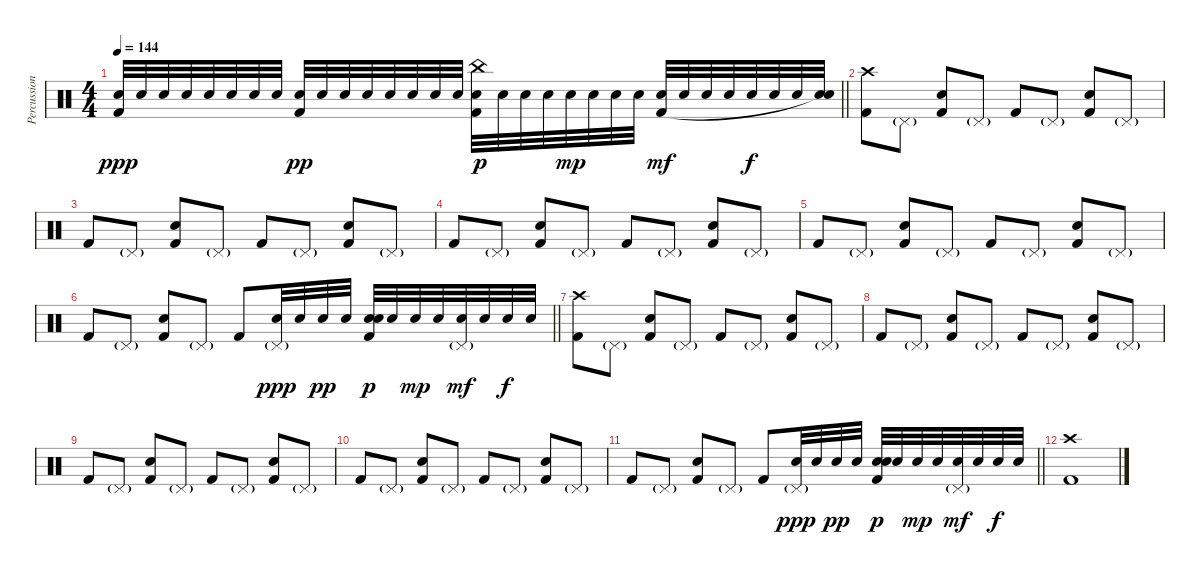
\track ("Percussion" "Percussion") {instrument percussion}
\staff {score}
\articulation defaults
\ts (4 4)
\tempo 144
\clef neutral
\barLineRight lightlight
\ks c
("Snare (hit) 2" "Kick (hit) 2").32{dy ppp} "Snare (hit) 2".32 "Snare (hit) 2".32 "Snare (hit) 2".32 "Snare (hit) 2".32 "Snare (hit) 2".32 "Snare (hit) 2".32 "Snare (hit) 2".32 ("Snare (hit) 2" "Kick (hit) 2").32{dy pp} "Snare (hit) 2".32 "Snare (hit) 2".32 "Snare (hit) 2".32 "Snare (hit) 2".32 "Snare (hit) 2".32 "Snare (hit) 2".32 "Snare (hit) 2".32 ("Snare (hit) 2" "China (hit)" "Kick (hit) 2").32{dy p} "Snare (hit) 2".32 "Snare (hit) 2".32 "Snare (hit) 2".32 "Snare (hit) 2".32{dy mp} "Snare (hit) 2".32 "Snare (hit) 2".32 "Snare (hit) 2".32 ("Snare (hit) 2" "Kick (hit) 2").32{dy mf} "Snare (hit) 2".32 "Snare (hit) 2".32 "Snare (hit) 2".32 "Snare (hit) 2".32{dy f} "Snare (hit) 2".32 "Snare (hit) 2".32 ("Snare (hit) 2" "Snare (hit)"{t}).32 |
("Crash high (hit)" "Kick (hit) 2").8 "Pedal Hi-Hat (hit)"{g}.8 ("Electric Snare (hit)" "Kick (hit) 2").8 "Pedal Hi-Hat (hit)"{g}.8 "Kick (hit) 2".8 "Pedal Hi-Hat (hit)"{g}.8 ("Electric Snare (hit)" "Kick (hit) 2").8 "Pedal Hi-Hat (hit)"{g}.8 |
"Kick (hit) 2".8 "Pedal Hi-Hat (hit)"{g}.8 ("Electric Snare (hit)" "Kick (hit) 2").8 "Pedal Hi-Hat (hit)"{g}.8 "Kick (hit) 2".8 "Pedal Hi-Hat (hit)"{g}.8 ("Electric Snare (hit)" "Kick (hit) 2").8 "Pedal Hi-Hat (hit)"{g}.8 |
"Kick (hit) 2".8 "Pedal Hi-Hat (hit)"{g}.8 ("Electric Snare (hit)" "Kick (hit) 2").8 "Pedal Hi-Hat (hit)"{g}.8 "Kick (hit) 2".8 "Pedal Hi-Hat (hit)"{g}.8 ("Electric Snare (hit)" "Kick (hit) 2").8 "Pedal Hi-Hat (hit)"{g}.8 |
"Kick (hit) 2".8 "Pedal Hi-Hat (hit)"{g}.8 ("Electric Snare (hit)" "Kick (hit) 2").8 "Pedal Hi-Hat (hit)"{g}.8 "Kick (hit) 2".8 "Pedal Hi-Hat (hit)"{g}.8 ("Electric Snare (hit)" "Kick (hit) 2").8 "Pedal Hi-Hat (hit)"{g}.8 |
\barLineRight lightlight "Kick (hit) 2".8 "Pedal Hi-Hat (hit)"{g}.8
("Electric Snare (hit)" "Kick (hit) 2").8 "Pedal Hi-Hat (hit)"{g}.8 "Kick (hit) 2".8 ("Pedal Hi-Hat (hit)"{g} "Snare (hit) 2").32{dy ppp} "Snare (hit) 2".32 "Snare (hit) 2".32{dy pp} "Snare (hit) 2".32 ("Electric Snare (hit)" "Snare (hit) 2" "Kick (hit) 2").32{dy p} "Snare (hit) 2".32 "Snare (hit) 2".32{dy mp} "Snare (hit) 2".32 ("Pedal Hi-Hat (hit)"{g} "Snare (hit) 2").32{dy mf} "Snare (hit) 2".32 "Snare (hit) 2".32{dy f} "Snare (hit) 2".32 |
("Crash high (hit)" "Kick (hit) 2").8 "Pedal Hi-Hat (hit)"{g}.8 ("Electric Snare (hit)" "Kick (hit) 2").8 "Pedal Hi-Hat (hit)"{g}.8 "Kick (hit) 2".8 "Pedal Hi-Hat (hit)"{g}.8 ("Electric Snare (hit)" "Kick (hit) 2").8 "Pedal Hi-Hat (hit)"{g}.8 |
"Kick (hit) 2".8 "Pedal Hi-Hat (hit)"{g}.8 ("Electric Snare (hit)" "Kick (hit) 2").8 "Pedal Hi-Hat (hit)"{g}.8 "Kick (hit) 2".8 "Pedal Hi-Hat (hit)"{g}.8 ("Electric Snare (hit)" "Kick (hit) 2").8 "Pedal Hi-Hat (hit)"{g}.8 |
"Kick (hit) 2".8 "Pedal Hi-Hat (hit)"{g}.8 ("Electric Snare (hit)" "Kick (hit) 2").8 "Pedal Hi-Hat (hit)"{g}.8 "Kick (hit) 2".8 "Pedal Hi-Hat (hit)"{g}.8 ("Electric Snare (hit)" "Kick (hit) 2").8 "Pedal Hi-Hat (hit)"{g}.8 |
"Kick (hit) 2".8 "Pedal Hi-Hat (hit)"{g}.8 ("Electric Snare (hit)" "Kick (hit) 2").8 "Pedal Hi-Hat (hit)"{g}.8 "Kick (hit) 2".8 "Pedal Hi-Hat (hit)"{g}.8 ("Electric Snare (hit)" "Kick (hit) 2").8 "Pedal Hi-Hat (hit)"{g}.8 |
\barLineRight lightlight "Kick (hit) 2".8 "Pedal Hi-Hat (hit)"{g}.8
("Electric Snare (hit)" "Kick (hit) 2").8 "Pedal Hi-Hat (hit)"{g}.8 "Kick (hit) 2".8 ("Pedal Hi-Hat (hit)"{g} "Snare (hit) 2").32{dy ppp} "Snare (hit) 2".32 "Snare (hit) 2".32{dy pp} "Snare (hit) 2".32 ("Electric Snare (hit)" "Snare (hit) 2" "Kick (hit) 2").32{dy p} "Snare (hit) 2".32 "Snare (hit) 2".32{dy mp} "Snare (hit) 2".32 ("Pedal Hi-Hat (hit)"{g} "Snare (hit) 2").32{dy mf} "Snare (hit) 2".32 "Snare (hit) 2".32{dy f} "Snare (hit) 2".32 |
("Crash high (hit)" "Kick (hit) 2").1
